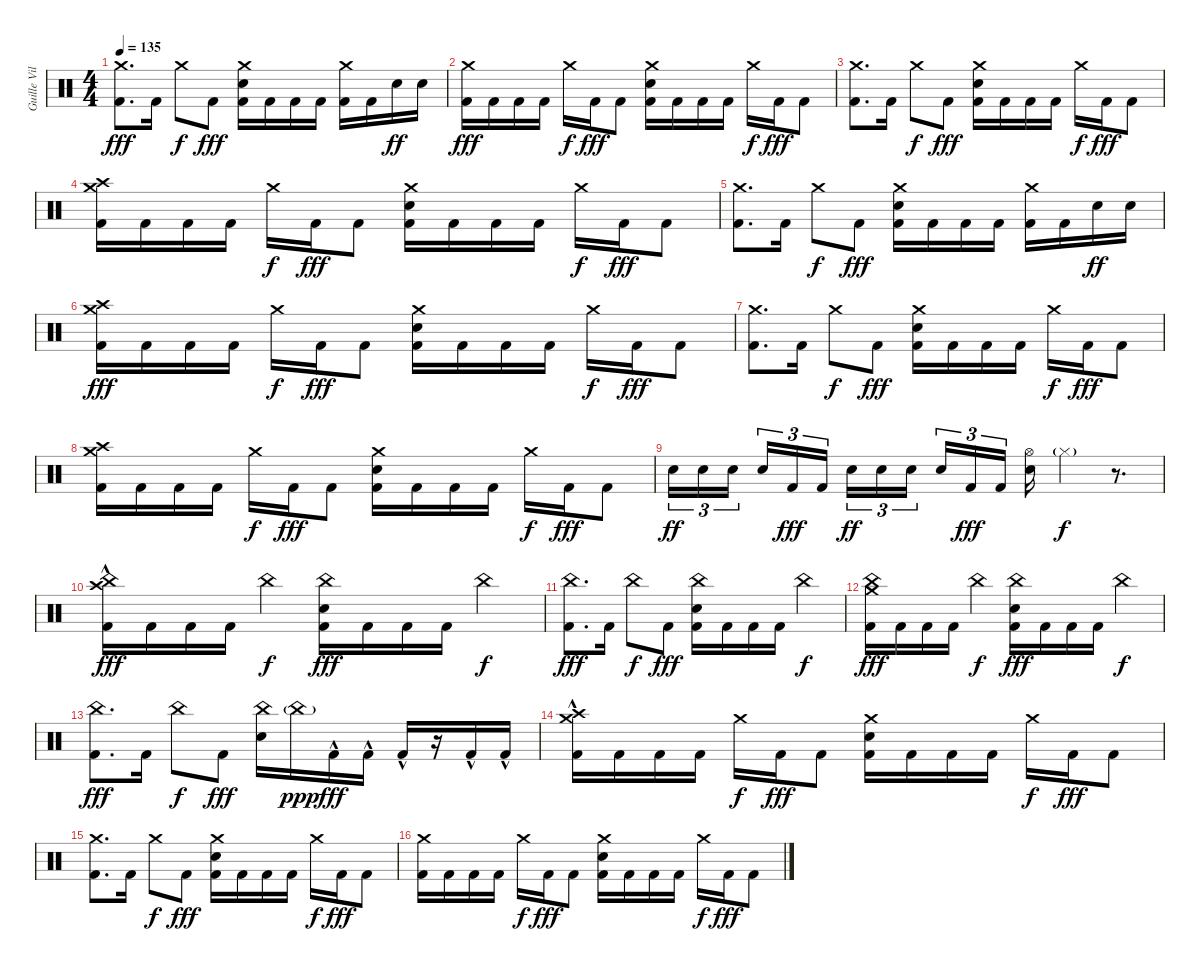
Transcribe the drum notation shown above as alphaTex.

\track ("Guille Vila" "Guille Vil") {instrument percussion}
\staff {score}
\articulation defaults
\ts (4 4)
\tempo 135
\clef neutral
\ks c
("Crash medium (hit)" "Kick (hit) 2").8{d dy fff} "Kick (hit) 2".16 "Crash medium (hit)".8{dy f} "Kick (hit) 2".8{dy fff} ("Crash medium (hit)" "Snare (hit) 2" "Kick (hit) 2").16 "Kick (hit) 2".16 "Kick (hit) 2".16 "Kick (hit) 2".16 ("Crash medium (hit)" "Kick (hit) 2").16 "Kick (hit) 2".16 "Snare (hit) 2".16{dy ff} "Snare (hit) 2".16 |
("Crash medium (hit)" "Kick (hit) 2").16{dy fff} "Kick (hit) 2".16 "Kick (hit) 2".16 "Kick (hit) 2".16 "Crash medium (hit)".16{dy f} "Kick (hit) 2".16{dy fff} "Kick (hit) 2".8 ("Crash medium (hit)" "Snare (hit) 2" "Kick (hit) 2").16 "Kick (hit) 2".16 "Kick (hit) 2".16 "Kick (hit) 2".16 "Crash medium (hit)".16{dy f} "Kick (hit) 2".16{dy fff} "Kick (hit) 2".8 |
("Crash medium (hit)" "Kick (hit) 2").8{d} "Kick (hit) 2".16 "Crash medium (hit)".8{dy f} "Kick (hit) 2".8{dy fff} ("Crash medium (hit)" "Snare (hit) 2" "Kick (hit) 2").16 "Kick (hit) 2".16 "Kick (hit) 2".16 "Kick (hit) 2".16 "Crash medium (hit)".16{dy f} "Kick (hit) 2".16{dy fff} "Kick (hit) 2".8 |
("Crash high (hit)" "Crash medium (hit)" "Kick (hit) 2").16 "Kick (hit) 2".16 "Kick (hit) 2".16 "Kick (hit) 2".16 "Crash medium (hit)".16{dy f} "Kick (hit) 2".16{dy fff} "Kick (hit) 2".8 ("Crash medium (hit)" "Snare (hit) 2" "Kick (hit) 2").16 "Kick (hit) 2".16 "Kick (hit) 2".16 "Kick (hit) 2".16 "Crash medium (hit)".16{dy f} "Kick (hit) 2".16{dy fff} "Kick (hit) 2".8 |
("Crash medium (hit)" "Kick (hit) 2").8{d} "Kick (hit) 2".16 "Crash medium (hit)".8{dy f} "Kick (hit) 2".8{dy fff} ("Crash medium (hit)" "Snare (hit) 2" "Kick (hit) 2").16 "Kick (hit) 2".16 "Kick (hit) 2".16 "Kick (hit) 2".16 ("Crash medium (hit)" "Kick (hit) 2").16 "Kick (hit) 2".16 "Snare (hit) 2".16{dy ff} "Snare (hit) 2".16 |
("Crash high (hit)" "Crash medium (hit)" "Kick (hit) 2").16{dy fff} "Kick (hit) 2".16 "Kick (hit) 2".16 "Kick (hit) 2".16 "Crash medium (hit)".16{dy f} "Kick (hit) 2".16{dy fff} "Kick (hit) 2".8 ("Crash medium (hit)" "Snare (hit) 2" "Kick (hit) 2").16 "Kick (hit) 2".16 "Kick (hit) 2".16 "Kick (hit) 2".16 "Crash medium (hit)".16{dy f} "Kick (hit) 2".16{dy fff} "Kick (hit) 2".8 |
("Crash medium (hit)" "Kick (hit) 2").8{d} "Kick (hit) 2".16 "Crash medium (hit)".8{dy f} "Kick (hit) 2".8{dy fff} ("Crash medium (hit)" "Snare (hit) 2" "Kick (hit) 2").16 "Kick (hit) 2".16 "Kick (hit) 2".16 "Kick (hit) 2".16 "Crash medium (hit)".16{dy f} "Kick (hit) 2".16{dy fff} "Kick (hit) 2".8 |
("Crash high (hit)" "Crash medium (hit)" "Kick (hit) 2").16 "Kick (hit) 2".16 "Kick (hit) 2".16 "Kick (hit) 2".16 "Crash medium (hit)".16{dy f} "Kick (hit) 2".16{dy fff} "Kick (hit) 2".8 ("Crash medium (hit)" "Snare (hit) 2" "Kick (hit) 2").16 "Kick (hit) 2".16 "Kick (hit) 2".16 "Kick (hit) 2".16 "Crash medium (hit)".16{dy f} "Kick (hit) 2".16{dy fff} "Kick (hit) 2".8 |
"Snare (hit) 2".16{tu (3 2) dy ff} "Snare (hit) 2".16{tu (3 2)} "Snare (hit) 2".16{tu (3 2) beam splitsecondary} "Snare (hit) 2".16{tu (3 2)} "Kick (hit) 2".16{tu (3 2) dy fff} "Kick (hit) 2".16{tu (3 2)} "Snare (hit) 2".16{tu (3 2) dy ff} "Snare (hit) 2".16{tu (3 2)} "Snare (hit) 2".16{tu (3 2) beam splitsecondary} "Snare (hit) 2".16{tu (3 2)} "Kick (hit) 2".16{tu (3 2) dy fff} "Kick (hit) 2".16{tu (3 2)} ("Hi-Hat (open)" "Snare (hit) 2").16 "Hi-Hat (closed)"{g}.4{dy f} r.8{d} |
("China (hit)" "Crash high (hit)" "Kick (hit) 2"{hac}).16{dy fff} "Kick (hit) 2".16 "Kick (hit) 2".16 "Kick (hit) 2".16 "China (hit)".4{dy f} ("China (hit)" "Snare (hit) 2" "Kick (hit) 2").16{dy fff} "Kick (hit) 2".16 "Kick (hit) 2".16 "Kick (hit) 2".16 "China (hit)".4{dy f} |
("China (hit)" "Kick (hit) 2").8{d dy fff} "Kick (hit) 2".16 "China (hit)".8{dy f} "Kick (hit) 2".8{dy fff} ("China (hit)" "Snare (hit) 2" "Kick (hit) 2").16 "Kick (hit) 2".16 "Kick (hit) 2".16 "Kick (hit) 2".16 "China (hit)".4{dy f} |
("China (hit)" "Crash medium (hit)" "Kick (hit) 2").16{dy fff} "Kick (hit) 2".16 "Kick (hit) 2".16 "Kick (hit) 2".16 "China (hit)".4{dy f} ("China (hit)" "Snare (hit) 2" "Kick (hit) 2").16{dy fff} "Kick (hit) 2".16 "Kick (hit) 2".16 "Kick (hit) 2".16 "China (hit)".4{dy f} |
("China (hit)" "Kick (hit) 2").8{d dy fff} "Kick (hit) 2".16 "China (hit)".8{dy f} "Kick (hit) 2".8{dy fff} ("China (hit)" "Snare (hit) 2").16 "China (hit)"{g}.16{dy ppp} "Kick (hit) 2"{hac}.16{dy fff} "Kick (hit) 2"{hac}.16 "Kick (hit) 2"{hac}.16 r.16 "Kick (hit) 2"{hac}.16 "Kick (hit) 2"{hac}.16 |
("Crash high (hit)" "Crash medium (hit)" "Kick (hit) 2"{hac}).16 "Kick (hit) 2".16 "Kick (hit) 2".16 "Kick (hit) 2".16 "Crash medium (hit)".16{dy f} "Kick (hit) 2".16{dy fff} "Kick (hit) 2".8 ("Crash medium (hit)" "Snare (hit) 2" "Kick (hit) 2").16 "Kick (hit) 2".16 "Kick (hit) 2".16 "Kick (hit) 2".16 "Crash medium (hit)".16{dy f} "Kick (hit) 2".16{dy fff} "Kick (hit) 2".8 |
("Crash medium (hit)" "Kick (hit) 2").8{d} "Kick (hit) 2".16 "Crash medium (hit)".8{dy f} "Kick (hit) 2".8{dy fff} ("Crash medium (hit)" "Snare (hit) 2" "Kick (hit) 2").16 "Kick (hit) 2".16 "Kick (hit) 2".16 "Kick (hit) 2".16 "Crash medium (hit)".16{dy f} "Kick (hit) 2".16{dy fff} "Kick (hit) 2".8 |
("Crash medium (hit)" "Kick (hit) 2").16 "Kick (hit) 2".16 "Kick (hit) 2".16 "Kick (hit) 2".16 "Crash medium (hit)".16{dy f} "Kick (hit) 2".16{dy fff} "Kick (hit) 2".8 ("Crash medium (hit)" "Snare (hit) 2" "Kick (hit) 2").16 "Kick (hit) 2".16 "Kick (hit) 2".16 "Kick (hit) 2".16 "Crash medium (hit)".16{dy f} "Kick (hit) 2".16{dy fff} "Kick (hit) 2".8
